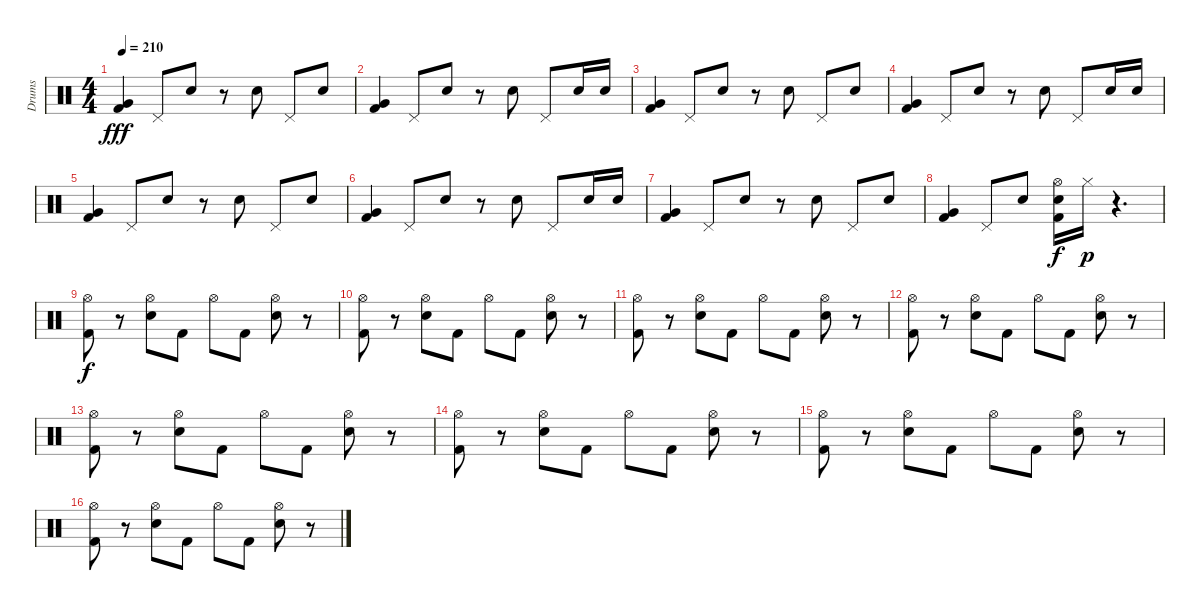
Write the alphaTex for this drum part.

\track ("Drums" "Drums") {instrument percussion}
\staff {score}
\articulation defaults
\ts (4 4)
\tempo 210
\clef neutral
\ks c
("Very Low Tom (hit)" "Kick (hit) 2").4{dy fff} "Pedal Hi-Hat (hit)".8 "Electric Snare (hit)".8 r.8 "Electric Snare (hit)".8 "Pedal Hi-Hat (hit)".8 "Electric Snare (hit)".8 |
("Very Low Tom (hit)" "Kick (hit) 2").4 "Pedal Hi-Hat (hit)".8 "Electric Snare (hit)".8 r.8 "Electric Snare (hit)".8 "Pedal Hi-Hat (hit)".8 "Electric Snare (hit)".16 "Electric Snare (hit)".16 |
("Very Low Tom (hit)" "Kick (hit) 2").4 "Pedal Hi-Hat (hit)".8 "Electric Snare (hit)".8 r.8 "Electric Snare (hit)".8 "Pedal Hi-Hat (hit)".8 "Electric Snare (hit)".8 |
("Very Low Tom (hit)" "Kick (hit) 2").4 "Pedal Hi-Hat (hit)".8 "Electric Snare (hit)".8 r.8 "Electric Snare (hit)".8 "Pedal Hi-Hat (hit)".8 "Electric Snare (hit)".16 "Electric Snare (hit)".16 |
("Very Low Tom (hit)" "Kick (hit) 2").4 "Pedal Hi-Hat (hit)".8 "Electric Snare (hit)".8 r.8 "Electric Snare (hit)".8 "Pedal Hi-Hat (hit)".8 "Electric Snare (hit)".8 |
("Very Low Tom (hit)" "Kick (hit) 2").4 "Pedal Hi-Hat (hit)".8 "Electric Snare (hit)".8 r.8 "Electric Snare (hit)".8 "Pedal Hi-Hat (hit)".8 "Electric Snare (hit)".16 "Electric Snare (hit)".16 |
("Very Low Tom (hit)" "Kick (hit) 2").4 "Pedal Hi-Hat (hit)".8 "Electric Snare (hit)".8 r.8 "Electric Snare (hit)".8 "Pedal Hi-Hat (hit)".8 "Electric Snare (hit)".8 |
("Very Low Tom (hit)" "Kick (hit) 2").4 "Pedal Hi-Hat (hit)".8 "Electric Snare (hit)".8 ("Hi-Hat (open)" "Electric Snare (hit)" "Kick (hit) 2").16{dy f} "Hi-Hat (closed)".16{dy p} r.4{d} |
("Hi-Hat (open)" "Kick (hit) 2").8{dy f} r.8 ("Hi-Hat (open)" "Electric Snare (hit)").8 "Kick (hit) 2".8 "Hi-Hat (open)".8 "Kick (hit) 2".8 ("Hi-Hat (open)" "Electric Snare (hit)").8 r.8 |
("Hi-Hat (open)" "Kick (hit) 2").8 r.8 ("Hi-Hat (open)" "Electric Snare (hit)").8 "Kick (hit) 2".8 "Hi-Hat (open)".8 "Kick (hit) 2".8 ("Hi-Hat (open)" "Electric Snare (hit)").8 r.8 |
("Hi-Hat (open)" "Kick (hit) 2").8 r.8 ("Hi-Hat (open)" "Electric Snare (hit)").8 "Kick (hit) 2".8 "Hi-Hat (open)".8 "Kick (hit) 2".8 ("Hi-Hat (open)" "Electric Snare (hit)").8 r.8 |
("Hi-Hat (open)" "Kick (hit) 2").8 r.8 ("Hi-Hat (open)" "Electric Snare (hit)").8 "Kick (hit) 2".8 "Hi-Hat (open)".8 "Kick (hit) 2".8 ("Hi-Hat (open)" "Electric Snare (hit)").8 r.8 |
("Hi-Hat (open)" "Kick (hit) 2").8 r.8 ("Hi-Hat (open)" "Electric Snare (hit)").8 "Kick (hit) 2".8 "Hi-Hat (open)".8 "Kick (hit) 2".8 ("Hi-Hat (open)" "Electric Snare (hit)").8 r.8 |
("Hi-Hat (open)" "Kick (hit) 2").8 r.8 ("Hi-Hat (open)" "Electric Snare (hit)").8 "Kick (hit) 2".8 "Hi-Hat (open)".8 "Kick (hit) 2".8 ("Hi-Hat (open)" "Electric Snare (hit)").8 r.8 |
("Hi-Hat (open)" "Kick (hit) 2").8 r.8 ("Hi-Hat (open)" "Electric Snare (hit)").8 "Kick (hit) 2".8 "Hi-Hat (open)".8 "Kick (hit) 2".8 ("Hi-Hat (open)" "Electric Snare (hit)").8 r.8 |
("Hi-Hat (open)" "Kick (hit) 2").8 r.8 ("Hi-Hat (open)" "Electric Snare (hit)").8 "Kick (hit) 2".8 "Hi-Hat (open)".8 "Kick (hit) 2".8 ("Hi-Hat (open)" "Electric Snare (hit)").8 r.8
